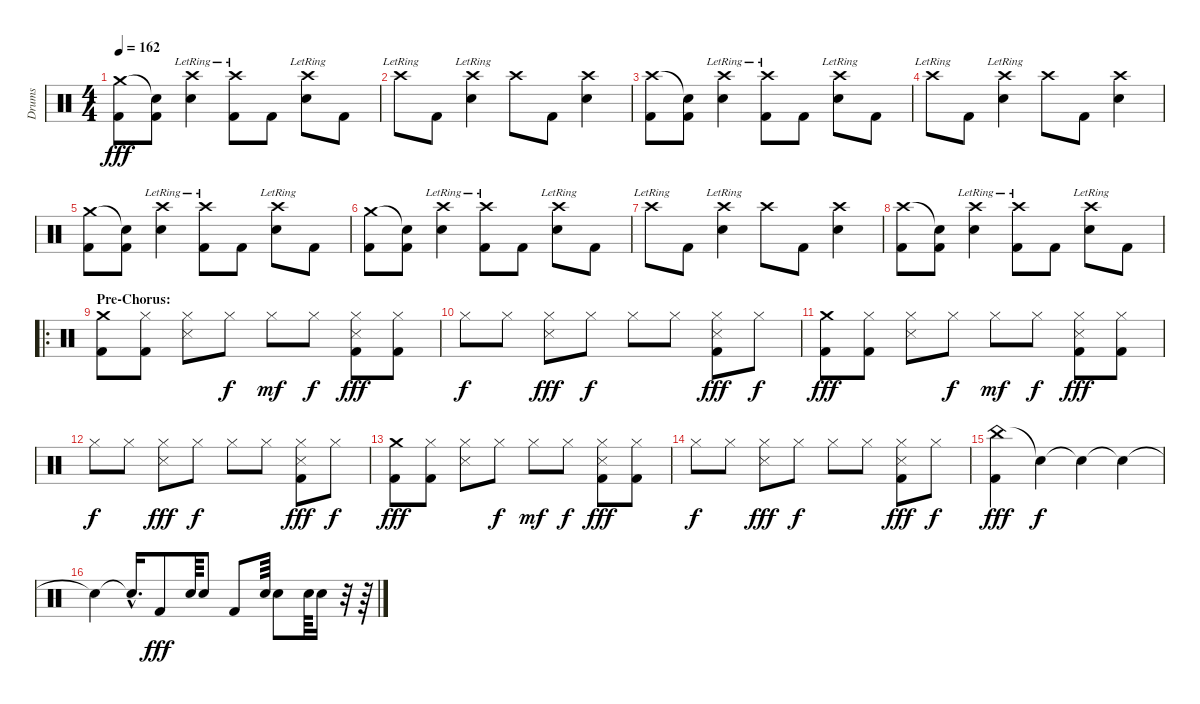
\track ("Drums" "Drums") {instrument percussion}
\staff {score}
\articulation defaults
\ts (4 4)
\tempo 162
\clef neutral
\ks c
("Crash medium (hit)" "Kick (hit) 2").8{dy fff} ("Snare (hit)"{t} "Kick (hit) 2").8 ("Crash high (hit)"{lr} "Snare (hit) 2").4 ("Crash high (hit)"{lr} "Kick (hit) 2").8 "Kick (hit) 2".8 ("Crash high (hit)"{lr} "Snare (hit) 2").8 "Kick (hit) 2".8 |
"Crash high (hit)"{lr}.8 "Kick (hit) 2".8 ("Crash high (hit)"{lr} "Snare (hit) 2").4 "Crash high (hit)".8 "Kick (hit) 2".8 ("Crash high (hit)" "Snare (hit) 2").4 |
("Crash high (hit)" "Kick (hit) 2").8 ("Snare (hit)"{t} "Kick (hit) 2").8 ("Crash high (hit)"{lr} "Snare (hit) 2").4 ("Crash high (hit)"{lr} "Kick (hit) 2").8 "Kick (hit) 2".8 ("Crash high (hit)"{lr} "Snare (hit) 2").8 "Kick (hit) 2".8 |
"Crash high (hit)"{lr}.8 "Kick (hit) 2".8 ("Crash high (hit)"{lr} "Snare (hit) 2").4 "Crash high (hit)".8 "Kick (hit) 2".8 ("Crash high (hit)" "Snare (hit) 2").4 |
("Crash medium (hit)" "Kick (hit) 2").8 ("Snare (hit)"{t} "Kick (hit) 2").8 ("Crash high (hit)"{lr} "Snare (hit) 2").4 ("Crash high (hit)"{lr} "Kick (hit) 2").8 "Kick (hit) 2".8 ("Crash high (hit)"{lr} "Snare (hit) 2").8 "Kick (hit) 2".8 |
("Crash medium (hit)" "Kick (hit) 2").8 ("Snare (hit)"{t} "Kick (hit) 2").8 ("Crash high (hit)"{lr} "Snare (hit) 2").4 ("Crash high (hit)"{lr} "Kick (hit) 2").8 "Kick (hit) 2".8 ("Crash high (hit)"{lr} "Snare (hit) 2").8 "Kick (hit) 2".8 |
"Crash high (hit)"{lr}.8 "Kick (hit) 2".8 ("Crash high (hit)"{lr} "Snare (hit) 2").4 "Crash high (hit)".8 "Kick (hit) 2".8 ("Crash high (hit)" "Snare (hit) 2").4 |
("Crash high (hit)" "Kick (hit) 2").8 ("Snare (hit)"{t} "Kick (hit) 2").8 ("Crash high (hit)"{lr} "Snare (hit) 2").4 ("Crash high (hit)"{lr} "Kick (hit) 2").8 "Kick (hit) 2".8 ("Crash high (hit)"{lr} "Snare (hit) 2").8 "Kick (hit) 2".8 |
\ro
\section ("" "Pre-Chorus:")
("Crash medium (hit)" "Kick (hit) 2").8 ("Hi-Hat (closed)" "Kick (hit) 2").8 ("Hi-Hat (closed)" "Metronome (hit)").8 "Hi-Hat (closed)".8{dy f} "Hi-Hat (closed)".8{dy mf} "Hi-Hat (closed)".8{dy f} ("Hi-Hat (closed)" "Metronome (hit)" "Kick (hit) 2").8{dy fff} ("Hi-Hat (closed)" "Kick (hit) 2").8 |
"Hi-Hat (closed)".8{dy f} "Hi-Hat (closed)".8 ("Hi-Hat (closed)" "Metronome (hit)").8{dy fff} "Hi-Hat (closed)".8{dy f} "Hi-Hat (closed)".8 "Hi-Hat (closed)".8 ("Hi-Hat (closed)" "Metronome (hit)" "Kick (hit) 2").8{dy fff} "Hi-Hat (closed)".8{dy f} |
("Crash medium (hit)" "Kick (hit) 2").8{dy fff} ("Hi-Hat (closed)" "Kick (hit) 2").8 ("Hi-Hat (closed)" "Metronome (hit)").8 "Hi-Hat (closed)".8{dy f} "Hi-Hat (closed)".8{dy mf} "Hi-Hat (closed)".8{dy f} ("Hi-Hat (closed)" "Metronome (hit)" "Kick (hit) 2").8{dy fff} ("Hi-Hat (closed)" "Kick (hit) 2").8 |
"Hi-Hat (closed)".8{dy f} "Hi-Hat (closed)".8 ("Hi-Hat (closed)" "Metronome (hit)").8{dy fff} "Hi-Hat (closed)".8{dy f} "Hi-Hat (closed)".8 "Hi-Hat (closed)".8 ("Hi-Hat (closed)" "Metronome (hit)" "Kick (hit) 2").8{dy fff} "Hi-Hat (closed)".8{dy f} |
("Crash medium (hit)" "Kick (hit) 2").8{dy fff} ("Hi-Hat (closed)" "Kick (hit) 2").8 ("Hi-Hat (closed)" "Metronome (hit)").8 "Hi-Hat (closed)".8{dy f} "Hi-Hat (closed)".8{dy mf} "Hi-Hat (closed)".8{dy f} ("Hi-Hat (closed)" "Metronome (hit)" "Kick (hit) 2").8{dy fff} ("Hi-Hat (closed)" "Kick (hit) 2").8 |
"Hi-Hat (closed)".8{dy f} "Hi-Hat (closed)".8 ("Hi-Hat (closed)" "Metronome (hit)").8{dy fff} "Hi-Hat (closed)".8{dy f} "Hi-Hat (closed)".8 "Hi-Hat (closed)".8 ("Hi-Hat (closed)" "Metronome (hit)" "Kick (hit) 2").8{dy fff} "Hi-Hat (closed)".8{dy f} |
("China (hit)" "Kick (hit) 2").4{dy fff} "Snare (hit)"{t}.4{dy f} "Snare (hit)"{t}.4 "Snare (hit)"{t}.4 |
"Snare (hit)"{t}.4 "Snare (hit)"{hac t}.16{d} "Kick (hit) 2".8{dy fff} "Snare (hit) 2".64 "Snare (hit) 2".8 "Kick (hit) 2".8 "Snare (hit) 2".64 "Snare (hit) 2".8 "Snare (hit) 2".64 "Snare (hit) 2".16 r.32 r.64
